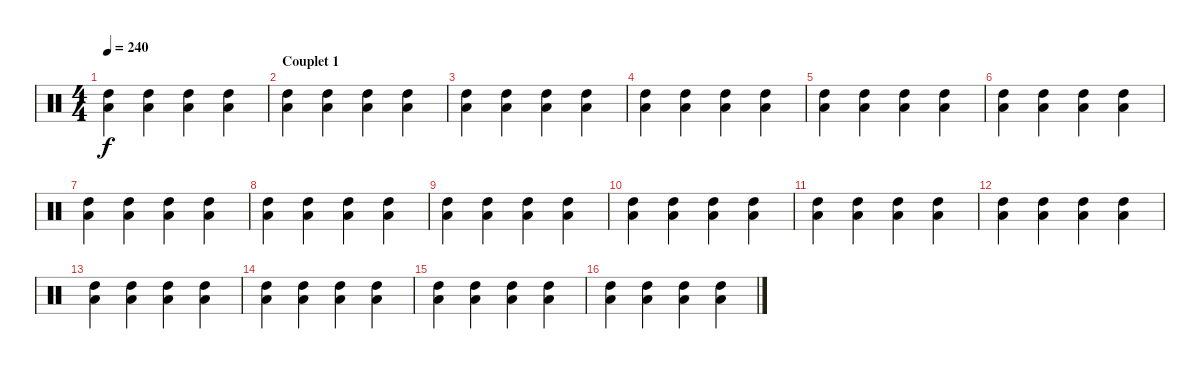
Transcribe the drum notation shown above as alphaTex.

\track "" {instrument percussion}
\staff {score}
\articulation defaults
\ts (4 4)
\tempo 240
\clef neutral
\ks c
("High Tom (hit)" "Low Floor Tom (hit)").4{dy f} ("High Tom (hit)" "Low Floor Tom (hit)").4 ("High Tom (hit)" "Low Floor Tom (hit)").4 ("High Tom (hit)" "Low Floor Tom (hit)").4 |
\section ("" "Couplet 1")
("High Tom (hit)" "Low Floor Tom (hit)").4 ("High Tom (hit)" "Low Floor Tom (hit)").4 ("High Tom (hit)" "Low Floor Tom (hit)").4 ("High Tom (hit)" "Low Floor Tom (hit)").4 |
("High Tom (hit)" "Low Floor Tom (hit)").4 ("High Tom (hit)" "Low Floor Tom (hit)").4 ("High Tom (hit)" "Low Floor Tom (hit)").4 ("High Tom (hit)" "Low Floor Tom (hit)").4 |
("High Tom (hit)" "Low Floor Tom (hit)").4 ("High Tom (hit)" "Low Floor Tom (hit)").4 ("High Tom (hit)" "Low Floor Tom (hit)").4 ("High Tom (hit)" "Low Floor Tom (hit)").4 |
("High Tom (hit)" "Low Floor Tom (hit)").4 ("High Tom (hit)" "Low Floor Tom (hit)").4 ("High Tom (hit)" "Low Floor Tom (hit)").4 ("High Tom (hit)" "Low Floor Tom (hit)").4 |
("High Tom (hit)" "Low Floor Tom (hit)").4 ("High Tom (hit)" "Low Floor Tom (hit)").4 ("High Tom (hit)" "Low Floor Tom (hit)").4 ("High Tom (hit)" "Low Floor Tom (hit)").4 |
("High Tom (hit)" "Low Floor Tom (hit)").4 ("High Tom (hit)" "Low Floor Tom (hit)").4 ("High Tom (hit)" "Low Floor Tom (hit)").4 ("High Tom (hit)" "Low Floor Tom (hit)").4 |
("High Tom (hit)" "Low Floor Tom (hit)").4 ("High Tom (hit)" "Low Floor Tom (hit)").4 ("High Tom (hit)" "Low Floor Tom (hit)").4 ("High Tom (hit)" "Low Floor Tom (hit)").4 |
("High Tom (hit)" "Low Floor Tom (hit)").4 ("High Tom (hit)" "Low Floor Tom (hit)").4 ("High Tom (hit)" "Low Floor Tom (hit)").4 ("High Tom (hit)" "Low Floor Tom (hit)").4 |
("High Tom (hit)" "Low Floor Tom (hit)").4 ("High Tom (hit)" "Low Floor Tom (hit)").4 ("High Tom (hit)" "Low Floor Tom (hit)").4 ("High Tom (hit)" "Low Floor Tom (hit)").4 |
("High Tom (hit)" "Low Floor Tom (hit)").4 ("High Tom (hit)" "Low Floor Tom (hit)").4 ("High Tom (hit)" "Low Floor Tom (hit)").4 ("High Tom (hit)" "Low Floor Tom (hit)").4 |
("High Tom (hit)" "Low Floor Tom (hit)").4 ("High Tom (hit)" "Low Floor Tom (hit)").4 ("High Tom (hit)" "Low Floor Tom (hit)").4 ("High Tom (hit)" "Low Floor Tom (hit)").4 |
("High Tom (hit)" "Low Floor Tom (hit)").4 ("High Tom (hit)" "Low Floor Tom (hit)").4 ("High Tom (hit)" "Low Floor Tom (hit)").4 ("High Tom (hit)" "Low Floor Tom (hit)").4 |
("High Tom (hit)" "Low Floor Tom (hit)").4 ("High Tom (hit)" "Low Floor Tom (hit)").4 ("High Tom (hit)" "Low Floor Tom (hit)").4 ("High Tom (hit)" "Low Floor Tom (hit)").4 |
("High Tom (hit)" "Low Floor Tom (hit)").4 ("High Tom (hit)" "Low Floor Tom (hit)").4 ("High Tom (hit)" "Low Floor Tom (hit)").4 ("High Tom (hit)" "Low Floor Tom (hit)").4 |
("High Tom (hit)" "Low Floor Tom (hit)").4 ("High Tom (hit)" "Low Floor Tom (hit)").4 ("High Tom (hit)" "Low Floor Tom (hit)").4 ("High Tom (hit)" "Low Floor Tom (hit)").4
